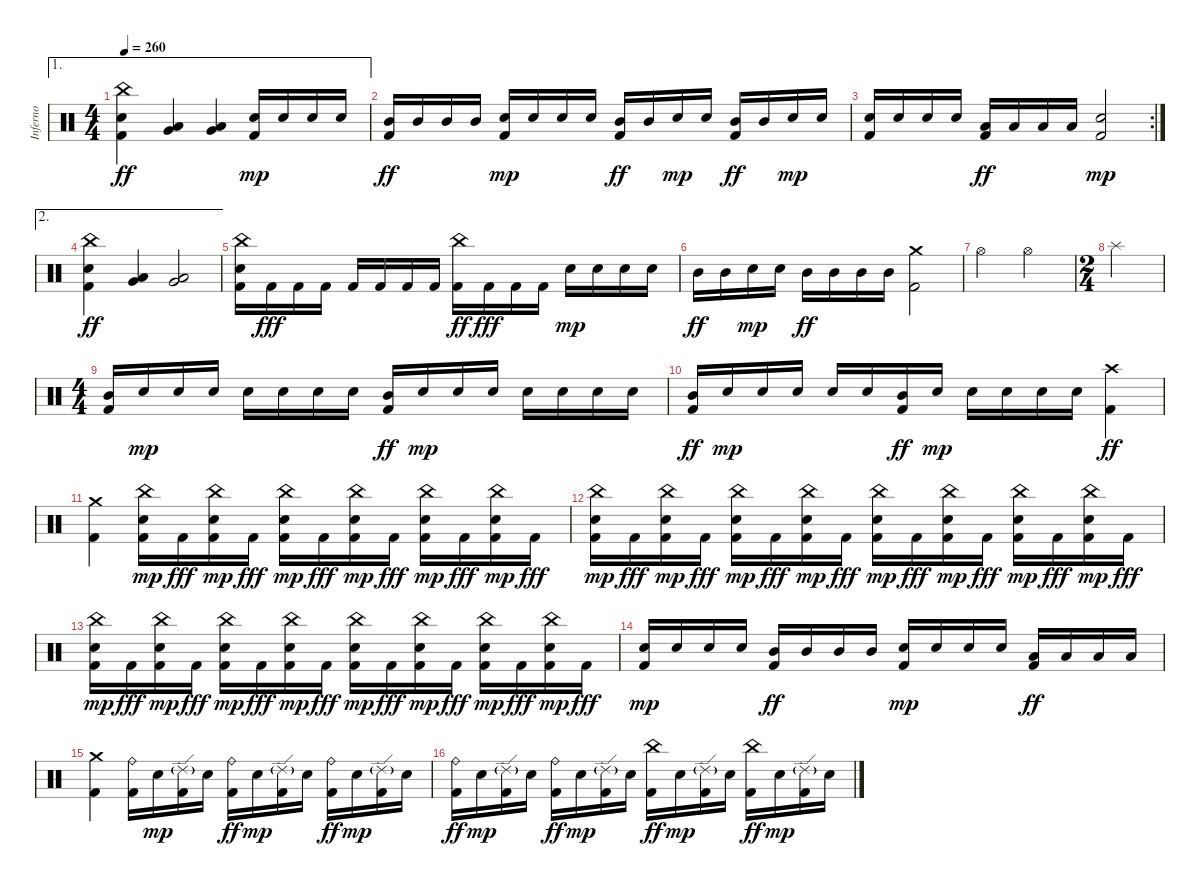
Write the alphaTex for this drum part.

\track ("Inferno" "Inferno") {instrument percussion}
\staff {score}
\articulation defaults
\ae 1
\ts (4 4)
\tempo 260
\clef neutral
\ks c
("Kick (hit) 2" "Electric Snare (hit)" "China (hit)").4{dy ff} ("Low Tom (hit)" "Very Low Tom (hit)").4 ("Low Tom (hit)" "Very Low Tom (hit)").4 ("Kick (hit) 2" "Electric Snare (hit)").16{dy mp} "Electric Snare (hit)".16 "Electric Snare (hit)".16 "Electric Snare (hit)".16 |
("Kick (hit) 2" "Mid Tom (hit)").16{dy ff} "Mid Tom (hit)".16 "Mid Tom (hit)".16 "Mid Tom (hit)".16 ("Kick (hit) 2" "Electric Snare (hit)").16{dy mp} "Electric Snare (hit)".16 "Electric Snare (hit)".16 "Electric Snare (hit)".16 ("Kick (hit) 2" "Mid Tom (hit)").16{dy ff} "Mid Tom (hit)".16 "Electric Snare (hit)".16{dy mp} "Electric Snare (hit)".16 ("Kick (hit) 2" "Mid Tom (hit)").16{dy ff} "Mid Tom (hit)".16 "Electric Snare (hit)".16{dy mp} "Electric Snare (hit)".16 |
\rc 2
("Kick (hit) 2" "Electric Snare (hit)").16 "Electric Snare (hit)".16 "Electric Snare (hit)".16 "Electric Snare (hit)".16 ("Kick (hit) 2" "Low Tom (hit)").16{dy ff} "Low Tom (hit)".16 "Low Tom (hit)".16 "Low Tom (hit)".16 ("Kick (hit) 2" "Electric Snare (hit)").2{dy mp} |
\ae 2
("Kick (hit) 2" "Electric Snare (hit)" "China (hit)").4{dy ff} ("Low Tom (hit)" "Very Low Tom (hit)").4 ("Low Tom (hit)" "Very Low Tom (hit)").2 |
("Kick (hit) 2" "Electric Snare (hit)" "China (hit)").16 "Kick (hit) 2".16{dy fff} "Kick (hit) 2".16 "Kick (hit) 2".16 "Kick (hit) 2".16 "Kick (hit) 2".16 "Kick (hit) 2".16 "Kick (hit) 2".16 ("Kick (hit) 2" "China (hit)").16{dy ff} "Kick (hit) 2".16{dy fff} "Kick (hit) 2".16 "Kick (hit) 2".16 "Electric Snare (hit)".16{dy mp} "Electric Snare (hit)".16 "Electric Snare (hit)".16 "Electric Snare (hit)".16 |
"Mid Tom (hit)".16{dy ff} "Mid Tom (hit)".16 "Electric Snare (hit)".16{dy mp} "Electric Snare (hit)".16 "Mid Tom (hit)".16{dy ff} "Mid Tom (hit)".16 "Mid Tom (hit)".16 "Mid Tom (hit)".16 ("Kick (hit) 2" "Crash medium (hit)").2 |
"Hi-Hat (open)".2 "Hi-Hat (open)".2 |
\ts (2 4)
"Splash (hit)".2 |
\ts (4 4)
("Kick (hit) 2" "Mid Tom (hit)").16 "Electric Snare (hit)".16{dy mp} "Electric Snare (hit)".16 "Electric Snare (hit)".16 "Electric Snare (hit)".16 "Electric Snare (hit)".16 "Electric Snare (hit)".16 "Electric Snare (hit)".16 ("Kick (hit) 2" "Mid Tom (hit)").16{dy ff} "Electric Snare (hit)".16{dy mp} "Electric Snare (hit)".16 "Electric Snare (hit)".16 "Electric Snare (hit)".16 "Electric Snare (hit)".16 "Electric Snare (hit)".16 "Electric Snare (hit)".16 |
("Kick (hit) 2" "Mid Tom (hit)").16{dy ff} "Electric Snare (hit)".16{dy mp} "Electric Snare (hit)".16 "Electric Snare (hit)".16 "Electric Snare (hit)".16 "Electric Snare (hit)".16 ("Kick (hit) 2" "Mid Tom (hit)").16{dy ff} "Electric Snare (hit)".16{dy mp} "Electric Snare (hit)".16 "Electric Snare (hit)".16 "Electric Snare (hit)".16 "Electric Snare (hit)".16 ("Kick (hit) 2" "Crash high (hit)").4{dy ff} |
("Kick (hit) 2" "Crash medium (hit)").4 ("Kick (hit) 2" "Electric Snare (hit)" "China (hit)").16{dy mp} "Kick (hit) 2".16{dy fff} ("Kick (hit) 2" "Electric Snare (hit)" "China (hit)").16{dy mp} "Kick (hit) 2".16{dy fff} ("Kick (hit) 2" "Electric Snare (hit)" "China (hit)").16{dy mp} "Kick (hit) 2".16{dy fff} ("Kick (hit) 2" "Electric Snare (hit)" "China (hit)").16{dy mp} "Kick (hit) 2".16{dy fff} ("Kick (hit) 2" "Electric Snare (hit)" "China (hit)").16{dy mp} "Kick (hit) 2".16{dy fff} ("Kick (hit) 2" "Electric Snare (hit)" "China (hit)").16{dy mp} "Kick (hit) 2".16{dy fff} |
("Kick (hit) 2" "Electric Snare (hit)" "China (hit)").16{dy mp} "Kick (hit) 2".16{dy fff} ("Kick (hit) 2" "Electric Snare (hit)" "China (hit)").16{dy mp} "Kick (hit) 2".16{dy fff} ("Kick (hit) 2" "Electric Snare (hit)" "China (hit)").16{dy mp} "Kick (hit) 2".16{dy fff} ("Kick (hit) 2" "Electric Snare (hit)" "China (hit)").16{dy mp} "Kick (hit) 2".16{dy fff} ("Kick (hit) 2" "Electric Snare (hit)" "China (hit)").16{dy mp} "Kick (hit) 2".16{dy fff} ("Kick (hit) 2" "Electric Snare (hit)" "China (hit)").16{dy mp} "Kick (hit) 2".16{dy fff} ("Kick (hit) 2" "Electric Snare (hit)" "China (hit)").16{dy mp} "Kick (hit) 2".16{dy fff} ("Kick (hit) 2" "Electric Snare (hit)" "China (hit)").16{dy mp} "Kick (hit) 2".16{dy fff} |
("Kick (hit) 2" "Electric Snare (hit)" "China (hit)").16{dy mp} "Kick (hit) 2".16{dy fff} ("Kick (hit) 2" "Electric Snare (hit)" "China (hit)").16{dy mp} "Kick (hit) 2".16{dy fff} ("Kick (hit) 2" "Electric Snare (hit)" "China (hit)").16{dy mp} "Kick (hit) 2".16{dy fff} ("Kick (hit) 2" "Electric Snare (hit)" "China (hit)").16{dy mp} "Kick (hit) 2".16{dy fff} ("Kick (hit) 2" "Electric Snare (hit)" "China (hit)").16{dy mp} "Kick (hit) 2".16{dy fff} ("Kick (hit) 2" "Electric Snare (hit)" "China (hit)").16{dy mp} "Kick (hit) 2".16{dy fff} ("Kick (hit) 2" "Electric Snare (hit)" "China (hit)").16{dy mp} "Kick (hit) 2".16{dy fff} ("Kick (hit) 2" "Electric Snare (hit)" "China (hit)").16{dy mp} "Kick (hit) 2".16{dy fff} |
("Kick (hit) 2" "Electric Snare (hit)").16{dy mp} "Electric Snare (hit)".16 "Electric Snare (hit)".16 "Electric Snare (hit)".16 ("Kick (hit) 2" "Mid Tom (hit)").16{dy ff} "Mid Tom (hit)".16 "Mid Tom (hit)".16 "Mid Tom (hit)".16 ("Kick (hit) 2" "Electric Snare (hit)").16{dy mp} "Electric Snare (hit)".16 "Electric Snare (hit)".16 "Electric Snare (hit)".16 ("Kick (hit) 2" "Low Tom (hit)").16{dy ff} "Low Tom (hit)".16 "Low Tom (hit)".16 "Low Tom (hit)".16 |
("Kick (hit) 2" "Crash medium (hit)").4 ("Kick (hit) 2" "Ride (bell)").16 "Electric Snare (hit)".16{dy mp} ("Kick (hit) 2" "Ride (edge) 2"{g}).16 "Electric Snare (hit)".16 ("Kick (hit) 2" "Ride (bell)").16{dy ff} "Electric Snare (hit)".16{dy mp} ("Kick (hit) 2" "Ride (edge) 2"{g}).16 "Electric Snare (hit)".16 ("Kick (hit) 2" "Ride (bell)").16{dy ff} "Electric Snare (hit)".16{dy mp} ("Kick (hit) 2" "Ride (edge) 2"{g}).16 "Electric Snare (hit)".16 |
("Kick (hit) 2" "Ride (bell)").16{dy ff} "Electric Snare (hit)".16{dy mp} ("Kick (hit) 2" "Ride (edge) 2"{g}).16 "Electric Snare (hit)".16 ("Kick (hit) 2" "Ride (bell)").16{dy ff} "Electric Snare (hit)".16{dy mp} ("Kick (hit) 2" "Ride (edge) 2"{g}).16 "Electric Snare (hit)".16 ("Kick (hit) 2" "China (hit)").16{dy ff} "Electric Snare (hit)".16{dy mp} ("Kick (hit) 2" "Ride (edge) 2"{g}).16 "Electric Snare (hit)".16 ("Kick (hit) 2" "China (hit)").16{dy ff} "Electric Snare (hit)".16{dy mp} ("Kick (hit) 2" "Ride (edge) 2"{g}).16 "Electric Snare (hit)".16
